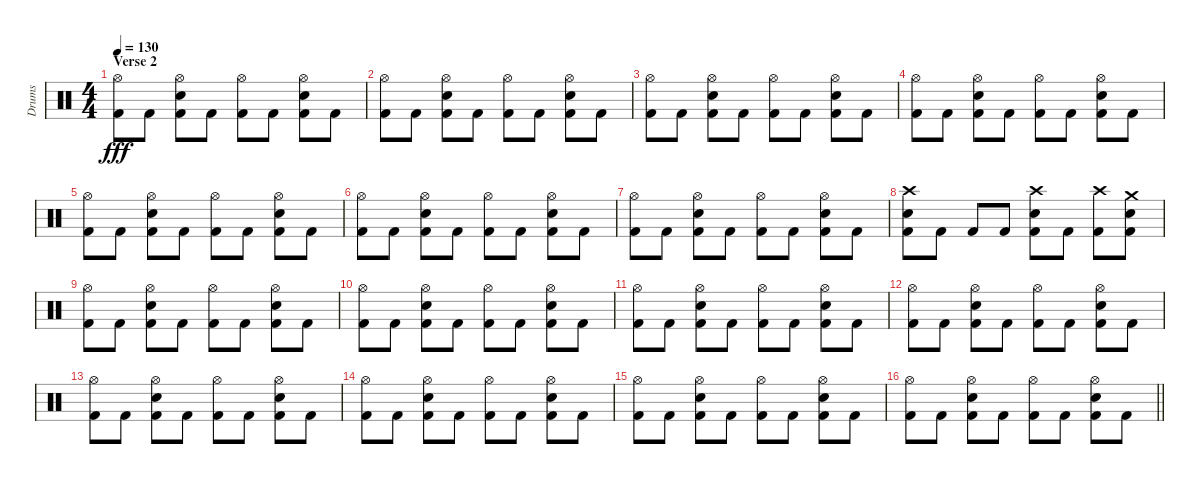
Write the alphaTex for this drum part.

\track ("Drums" "Drums") {instrument percussion}
\staff {score}
\articulation defaults
\ts (4 4)
\section ("" "Verse 2")
\tempo 130
\clef neutral
\ks c
("Hi-Hat (open)" "Kick (hit) 2").8{dy fff} "Kick (hit) 2".8 ("Hi-Hat (open)" "Snare (hit) 2" "Kick (hit) 2").8 "Kick (hit) 2".8 ("Hi-Hat (open)" "Kick (hit) 2").8 "Kick (hit) 2".8 ("Hi-Hat (open)" "Snare (hit) 2" "Kick (hit) 2").8 "Kick (hit) 2".8 |
("Hi-Hat (open)" "Kick (hit) 2").8 "Kick (hit) 2".8 ("Hi-Hat (open)" "Snare (hit) 2" "Kick (hit) 2").8 "Kick (hit) 2".8 ("Hi-Hat (open)" "Kick (hit) 2").8 "Kick (hit) 2".8 ("Hi-Hat (open)" "Snare (hit) 2" "Kick (hit) 2").8 "Kick (hit) 2".8 |
("Hi-Hat (open)" "Kick (hit) 2").8 "Kick (hit) 2".8 ("Hi-Hat (open)" "Snare (hit) 2" "Kick (hit) 2").8 "Kick (hit) 2".8 ("Hi-Hat (open)" "Kick (hit) 2").8 "Kick (hit) 2".8 ("Hi-Hat (open)" "Snare (hit) 2" "Kick (hit) 2").8 "Kick (hit) 2".8 |
("Hi-Hat (open)" "Kick (hit) 2").8 "Kick (hit) 2".8 ("Hi-Hat (open)" "Snare (hit) 2" "Kick (hit) 2").8 "Kick (hit) 2".8 ("Hi-Hat (open)" "Kick (hit) 2").8 "Kick (hit) 2".8 ("Hi-Hat (open)" "Snare (hit) 2" "Kick (hit) 2").8 "Kick (hit) 2".8 |
("Hi-Hat (open)" "Kick (hit) 2").8 "Kick (hit) 2".8 ("Hi-Hat (open)" "Snare (hit) 2" "Kick (hit) 2").8 "Kick (hit) 2".8 ("Hi-Hat (open)" "Kick (hit) 2").8 "Kick (hit) 2".8 ("Hi-Hat (open)" "Snare (hit) 2" "Kick (hit) 2").8 "Kick (hit) 2".8 |
("Hi-Hat (open)" "Kick (hit) 2").8 "Kick (hit) 2".8 ("Hi-Hat (open)" "Snare (hit) 2" "Kick (hit) 2").8 "Kick (hit) 2".8 ("Hi-Hat (open)" "Kick (hit) 2").8 "Kick (hit) 2".8 ("Hi-Hat (open)" "Snare (hit) 2" "Kick (hit) 2").8 "Kick (hit) 2".8 |
("Hi-Hat (open)" "Kick (hit) 2").8 "Kick (hit) 2".8 ("Hi-Hat (open)" "Snare (hit) 2" "Kick (hit) 2").8 "Kick (hit) 2".8 ("Hi-Hat (open)" "Kick (hit) 2").8 "Kick (hit) 2".8 ("Hi-Hat (open)" "Snare (hit) 2" "Kick (hit) 2").8 "Kick (hit) 2".8 |
("Crash high (hit)" "Snare (hit) 2" "Kick (hit) 2").8 "Kick (hit) 2".8 "Kick (hit) 2".8 "Kick (hit) 2".8 ("Crash high (hit)" "Snare (hit) 2" "Kick (hit) 2").8 "Kick (hit) 2".8 ("Crash high (hit)" "Kick (hit) 2").8 ("Crash medium (hit)" "Snare (hit) 2" "Kick (hit) 2").8 |
("Hi-Hat (open)" "Kick (hit) 2").8 "Kick (hit) 2".8 ("Hi-Hat (open)" "Snare (hit) 2" "Kick (hit) 2").8 "Kick (hit) 2".8 ("Hi-Hat (open)" "Kick (hit) 2").8 "Kick (hit) 2".8 ("Hi-Hat (open)" "Snare (hit) 2" "Kick (hit) 2").8 "Kick (hit) 2".8 |
("Hi-Hat (open)" "Kick (hit) 2").8 "Kick (hit) 2".8 ("Hi-Hat (open)" "Snare (hit) 2" "Kick (hit) 2").8 "Kick (hit) 2".8 ("Hi-Hat (open)" "Kick (hit) 2").8 "Kick (hit) 2".8 ("Hi-Hat (open)" "Snare (hit) 2" "Kick (hit) 2").8 "Kick (hit) 2".8 |
("Hi-Hat (open)" "Kick (hit) 2").8 "Kick (hit) 2".8 ("Hi-Hat (open)" "Snare (hit) 2" "Kick (hit) 2").8 "Kick (hit) 2".8 ("Hi-Hat (open)" "Kick (hit) 2").8 "Kick (hit) 2".8 ("Hi-Hat (open)" "Snare (hit) 2" "Kick (hit) 2").8 "Kick (hit) 2".8 |
("Hi-Hat (open)" "Kick (hit) 2").8 "Kick (hit) 2".8 ("Hi-Hat (open)" "Snare (hit) 2" "Kick (hit) 2").8 "Kick (hit) 2".8 ("Hi-Hat (open)" "Kick (hit) 2").8 "Kick (hit) 2".8 ("Hi-Hat (open)" "Snare (hit) 2" "Kick (hit) 2").8 "Kick (hit) 2".8 |
("Hi-Hat (open)" "Kick (hit) 2").8 "Kick (hit) 2".8 ("Hi-Hat (open)" "Snare (hit) 2" "Kick (hit) 2").8 "Kick (hit) 2".8 ("Hi-Hat (open)" "Kick (hit) 2").8 "Kick (hit) 2".8 ("Hi-Hat (open)" "Snare (hit) 2" "Kick (hit) 2").8 "Kick (hit) 2".8 |
("Hi-Hat (open)" "Kick (hit) 2").8 "Kick (hit) 2".8 ("Hi-Hat (open)" "Snare (hit) 2" "Kick (hit) 2").8 "Kick (hit) 2".8 ("Hi-Hat (open)" "Kick (hit) 2").8 "Kick (hit) 2".8 ("Hi-Hat (open)" "Snare (hit) 2" "Kick (hit) 2").8 "Kick (hit) 2".8 |
("Hi-Hat (open)" "Kick (hit) 2").8 "Kick (hit) 2".8 ("Hi-Hat (open)" "Snare (hit) 2" "Kick (hit) 2").8 "Kick (hit) 2".8 ("Hi-Hat (open)" "Kick (hit) 2").8 "Kick (hit) 2".8 ("Hi-Hat (open)" "Snare (hit) 2" "Kick (hit) 2").8 "Kick (hit) 2".8 |
\barLineRight lightlight
("Hi-Hat (open)" "Kick (hit) 2").8 "Kick (hit) 2".8 ("Hi-Hat (open)" "Snare (hit) 2" "Kick (hit) 2").8 "Kick (hit) 2".8 ("Hi-Hat (open)" "Kick (hit) 2").8 "Kick (hit) 2".8 ("Hi-Hat (open)" "Snare (hit) 2" "Kick (hit) 2").8 "Kick (hit) 2".8
